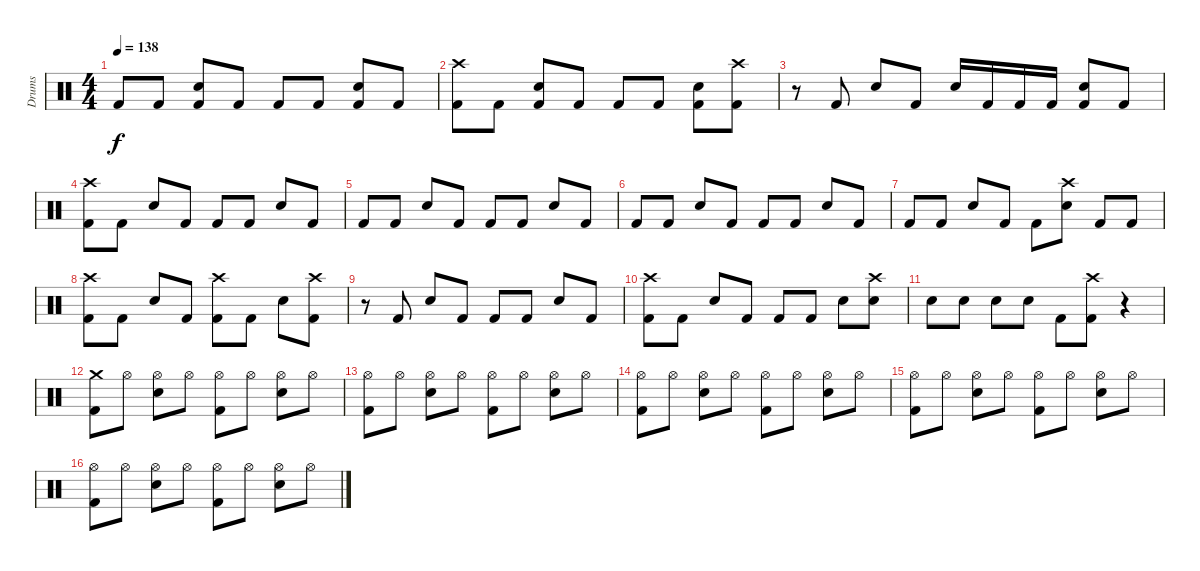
\track ("Drums" "Drums") {instrument percussion}
\staff {score}
\articulation defaults
\ts (4 4)
\tempo 138
\clef neutral
\ks c "Kick (hit) 2".8{dy f} "Kick (hit) 2".8
("Snare (hit) 2" "Kick (hit) 2").8 "Kick (hit) 2".8 "Kick (hit) 2".8 "Kick (hit) 2".8 ("Snare (hit) 2" "Kick (hit) 2").8 "Kick (hit) 2".8 |
("Crash high (hit)" "Kick (hit) 2").8 "Kick (hit) 2".8 ("Snare (hit) 2" "Kick (hit) 2").8 "Kick (hit) 2".8 "Kick (hit) 2".8 "Kick (hit) 2".8 ("Snare (hit) 2" "Kick (hit) 2").8 ("Crash high (hit)" "Kick (hit) 2").8 |
r.8 "Kick (hit) 2".8 "Snare (hit) 2".8 "Kick (hit) 2".8 "Snare (hit) 2".16 "Kick (hit) 2".16 "Kick (hit) 2".16 "Kick (hit) 2".16 ("Snare (hit) 2" "Kick (hit) 2").8 "Kick (hit) 2".8 |
("Crash high (hit)" "Kick (hit) 2").8 "Kick (hit) 2".8 "Snare (hit) 2".8 "Kick (hit) 2".8 "Kick (hit) 2".8 "Kick (hit) 2".8 "Snare (hit) 2".8 "Kick (hit) 2".8 |
"Kick (hit) 2".8 "Kick (hit) 2".8 "Snare (hit) 2".8 "Kick (hit) 2".8 "Kick (hit) 2".8 "Kick (hit) 2".8 "Snare (hit) 2".8 "Kick (hit) 2".8 |
"Kick (hit) 2".8 "Kick (hit) 2".8 "Snare (hit) 2".8 "Kick (hit) 2".8 "Kick (hit) 2".8 "Kick (hit) 2".8 "Snare (hit) 2".8 "Kick (hit) 2".8 |
"Kick (hit) 2".8 "Kick (hit) 2".8 "Snare (hit) 2".8 "Kick (hit) 2".8 "Kick (hit) 2".8 ("Crash high (hit)" "Snare (hit) 2").8 "Kick (hit) 2".8 "Kick (hit) 2".8 |
("Crash high (hit)" "Kick (hit) 2").8 "Kick (hit) 2".8 "Snare (hit) 2".8 "Kick (hit) 2".8 ("Crash high (hit)" "Kick (hit) 2").8 "Kick (hit) 2".8 "Snare (hit) 2".8 ("Crash high (hit)" "Kick (hit) 2").8 |
r.8 "Kick (hit) 2".8 "Snare (hit) 2".8 "Kick (hit) 2".8 "Kick (hit) 2".8 "Kick (hit) 2".8 "Snare (hit) 2".8 "Kick (hit) 2".8 |
("Crash high (hit)" "Kick (hit) 2").8 "Kick (hit) 2".8 "Snare (hit) 2".8 "Kick (hit) 2".8 "Kick (hit) 2".8 "Kick (hit) 2".8 "Snare (hit) 2".8 ("Crash high (hit)" "Snare (hit) 2").8 |
"Snare (hit) 2".8 "Snare (hit) 2".8 "Snare (hit) 2".8 "Snare (hit) 2".8 "Kick (hit) 2".8 ("Crash high (hit)" "Kick (hit) 2").8 r.4 |
("Crash medium (hit)" "Kick (hit) 2").8 "Hi-Hat (open)".8 ("Hi-Hat (open)" "Snare (hit) 2").8 "Hi-Hat (open)".8 ("Hi-Hat (open)" "Kick (hit) 2").8 "Hi-Hat (open)".8 ("Hi-Hat (open)" "Snare (hit) 2").8 "Hi-Hat (open)".8 |
("Hi-Hat (open)" "Kick (hit) 2").8 "Hi-Hat (open)".8 ("Hi-Hat (open)" "Snare (hit) 2").8 "Hi-Hat (open)".8 ("Hi-Hat (open)" "Kick (hit) 2").8 "Hi-Hat (open)".8 ("Hi-Hat (open)" "Snare (hit) 2").8 "Hi-Hat (open)".8 |
("Hi-Hat (open)" "Kick (hit) 2").8 "Hi-Hat (open)".8 ("Hi-Hat (open)" "Snare (hit) 2").8 "Hi-Hat (open)".8 ("Hi-Hat (open)" "Kick (hit) 2").8 "Hi-Hat (open)".8 ("Hi-Hat (open)" "Snare (hit) 2").8 "Hi-Hat (open)".8 |
("Hi-Hat (open)" "Kick (hit) 2").8 "Hi-Hat (open)".8 ("Hi-Hat (open)" "Snare (hit) 2").8 "Hi-Hat (open)".8 ("Hi-Hat (open)" "Kick (hit) 2").8 "Hi-Hat (open)".8 ("Hi-Hat (open)" "Snare (hit) 2").8 "Hi-Hat (open)".8 |
("Hi-Hat (open)" "Kick (hit) 2").8 "Hi-Hat (open)".8 ("Hi-Hat (open)" "Snare (hit) 2").8 "Hi-Hat (open)".8 ("Hi-Hat (open)" "Kick (hit) 2").8 "Hi-Hat (open)".8 ("Hi-Hat (open)" "Snare (hit) 2").8 "Hi-Hat (open)".8
